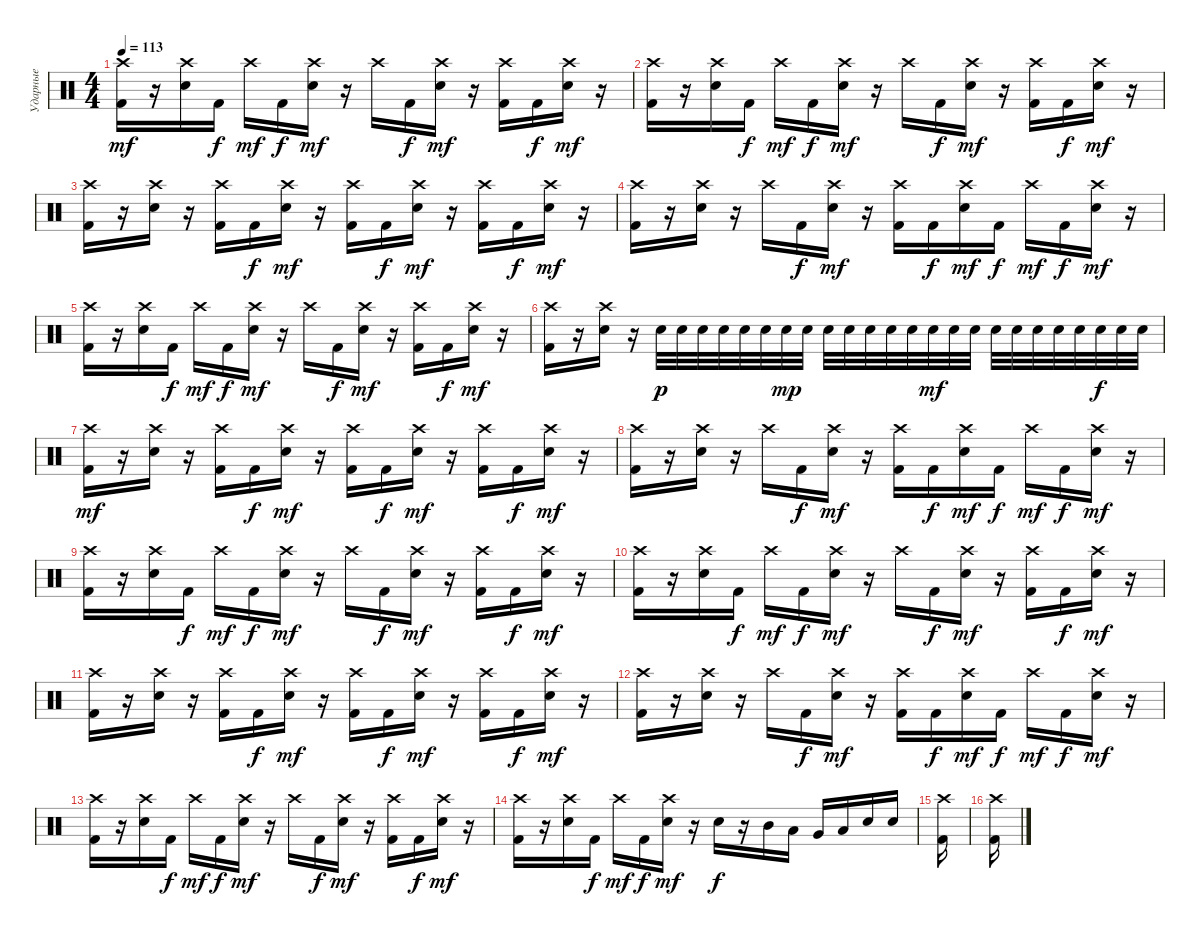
\track ("Ударные" "Ударные") {instrument percussion}
\staff {score}
\articulation defaults
\ts (4 4)
\tempo 113
\clef neutral
\ks c
("Crash high (hit)" "Kick (hit) 2").16{dy mf} r.16 ("Crash high (hit)" "Electric Snare (hit)").16 "Kick (hit) 2".16{dy f} "Crash high (hit)".16{dy mf} "Kick (hit) 2".16{dy f} ("Crash high (hit)" "Electric Snare (hit)").16{dy mf} r.16 "Crash high (hit)".16 "Kick (hit) 2".16{dy f} ("Crash high (hit)" "Electric Snare (hit)").16{dy mf} r.16 ("Crash high (hit)" "Kick (hit) 2").16 "Kick (hit) 2".16{dy f} ("Crash high (hit)" "Electric Snare (hit)").16{dy mf} r.16 |
("Crash high (hit)" "Kick (hit) 2").16 r.16 ("Crash high (hit)" "Electric Snare (hit)").16 "Kick (hit) 2".16{dy f} "Crash high (hit)".16{dy mf} "Kick (hit) 2".16{dy f} ("Crash high (hit)" "Electric Snare (hit)").16{dy mf} r.16 "Crash high (hit)".16 "Kick (hit) 2".16{dy f} ("Crash high (hit)" "Electric Snare (hit)").16{dy mf} r.16 ("Crash high (hit)" "Kick (hit) 2").16 "Kick (hit) 2".16{dy f} ("Crash high (hit)" "Electric Snare (hit)").16{dy mf} r.16 |
("Crash high (hit)" "Kick (hit) 2").16 r.16 ("Crash high (hit)" "Electric Snare (hit)").16 r.16 ("Crash high (hit)" "Kick (hit) 2").16 "Kick (hit) 2".16{dy f} ("Crash high (hit)" "Electric Snare (hit)").16{dy mf} r.16 ("Crash high (hit)" "Kick (hit) 2").16 "Kick (hit) 2".16{dy f} ("Crash high (hit)" "Electric Snare (hit)").16{dy mf} r.16 ("Crash high (hit)" "Kick (hit) 2").16 "Kick (hit) 2".16{dy f} ("Crash high (hit)" "Electric Snare (hit)").16{dy mf} r.16 |
("Crash high (hit)" "Kick (hit) 2").16 r.16 ("Crash high (hit)" "Electric Snare (hit)").16 r.16 "Crash high (hit)".16 "Kick (hit) 2".16{dy f} ("Crash high (hit)" "Electric Snare (hit)").16{dy mf} r.16 ("Crash high (hit)" "Kick (hit) 2").16 "Kick (hit) 2".16{dy f} ("Crash high (hit)" "Electric Snare (hit)").16{dy mf} "Kick (hit) 2".16{dy f} "Crash high (hit)".16{dy mf} "Kick (hit) 2".16{dy f} ("Crash high (hit)" "Electric Snare (hit)").16{dy mf} r.16 |
("Crash high (hit)" "Kick (hit) 2").16 r.16 ("Crash high (hit)" "Electric Snare (hit)").16 "Kick (hit) 2".16{dy f} "Crash high (hit)".16{dy mf} "Kick (hit) 2".16{dy f} ("Crash high (hit)" "Electric Snare (hit)").16{dy mf} r.16 "Crash high (hit)".16 "Kick (hit) 2".16{dy f} ("Crash high (hit)" "Electric Snare (hit)").16{dy mf} r.16 ("Crash high (hit)" "Kick (hit) 2").16 "Kick (hit) 2".16{dy f} ("Crash high (hit)" "Electric Snare (hit)").16{dy mf} r.16 |
("Crash high (hit)" "Kick (hit) 2").16 r.16 ("Crash high (hit)" "Electric Snare (hit)").16 r.16 "Electric Snare (hit)".32{dy p} "Electric Snare (hit)".32 "Electric Snare (hit)".32 "Electric Snare (hit)".32 "Electric Snare (hit)".32 "Electric Snare (hit)".32 "Electric Snare (hit)".32{dy mp} "Electric Snare (hit)".32 "Electric Snare (hit)".32 "Electric Snare (hit)".32 "Electric Snare (hit)".32 "Electric Snare (hit)".32 "Electric Snare (hit)".32 "Electric Snare (hit)".32{dy mf} "Electric Snare (hit)".32 "Electric Snare (hit)".32 "Electric Snare (hit)".32 "Electric Snare (hit)".32 "Electric Snare (hit)".32 "Electric Snare (hit)".32 "Electric Snare (hit)".32 "Electric Snare (hit)".32{dy f} "Electric Snare (hit)".32 "Electric Snare (hit)".32 |
("Crash high (hit)" "Kick (hit) 2").16{dy mf} r.16 ("Crash high (hit)" "Electric Snare (hit)").16 r.16 ("Crash high (hit)" "Kick (hit) 2").16 "Kick (hit) 2".16{dy f} ("Crash high (hit)" "Electric Snare (hit)").16{dy mf} r.16 ("Crash high (hit)" "Kick (hit) 2").16 "Kick (hit) 2".16{dy f} ("Crash high (hit)" "Electric Snare (hit)").16{dy mf} r.16 ("Crash high (hit)" "Kick (hit) 2").16 "Kick (hit) 2".16{dy f} ("Crash high (hit)" "Electric Snare (hit)").16{dy mf} r.16 |
("Crash high (hit)" "Kick (hit) 2").16 r.16 ("Crash high (hit)" "Electric Snare (hit)").16 r.16 "Crash high (hit)".16 "Kick (hit) 2".16{dy f} ("Crash high (hit)" "Electric Snare (hit)").16{dy mf} r.16 ("Crash high (hit)" "Kick (hit) 2").16 "Kick (hit) 2".16{dy f} ("Crash high (hit)" "Electric Snare (hit)").16{dy mf} "Kick (hit) 2".16{dy f} "Crash high (hit)".16{dy mf} "Kick (hit) 2".16{dy f} ("Crash high (hit)" "Electric Snare (hit)").16{dy mf} r.16 |
("Crash high (hit)" "Kick (hit) 2").16 r.16 ("Crash high (hit)" "Electric Snare (hit)").16 "Kick (hit) 2".16{dy f} "Crash high (hit)".16{dy mf} "Kick (hit) 2".16{dy f} ("Crash high (hit)" "Electric Snare (hit)").16{dy mf} r.16 "Crash high (hit)".16 "Kick (hit) 2".16{dy f} ("Crash high (hit)" "Electric Snare (hit)").16{dy mf} r.16 ("Crash high (hit)" "Kick (hit) 2").16 "Kick (hit) 2".16{dy f} ("Crash high (hit)" "Electric Snare (hit)").16{dy mf} r.16 |
("Crash high (hit)" "Kick (hit) 2").16 r.16 ("Crash high (hit)" "Electric Snare (hit)").16 "Kick (hit) 2".16{dy f} "Crash high (hit)".16{dy mf} "Kick (hit) 2".16{dy f} ("Crash high (hit)" "Electric Snare (hit)").16{dy mf} r.16 "Crash high (hit)".16 "Kick (hit) 2".16{dy f} ("Crash high (hit)" "Electric Snare (hit)").16{dy mf} r.16 ("Crash high (hit)" "Kick (hit) 2").16 "Kick (hit) 2".16{dy f} ("Crash high (hit)" "Electric Snare (hit)").16{dy mf} r.16 |
("Crash high (hit)" "Kick (hit) 2").16 r.16 ("Crash high (hit)" "Electric Snare (hit)").16 r.16 ("Crash high (hit)" "Kick (hit) 2").16 "Kick (hit) 2".16{dy f} ("Crash high (hit)" "Electric Snare (hit)").16{dy mf} r.16 ("Crash high (hit)" "Kick (hit) 2").16 "Kick (hit) 2".16{dy f} ("Crash high (hit)" "Electric Snare (hit)").16{dy mf} r.16 ("Crash high (hit)" "Kick (hit) 2").16 "Kick (hit) 2".16{dy f} ("Crash high (hit)" "Electric Snare (hit)").16{dy mf} r.16 |
("Crash high (hit)" "Kick (hit) 2").16 r.16 ("Crash high (hit)" "Electric Snare (hit)").16 r.16 "Crash high (hit)".16 "Kick (hit) 2".16{dy f} ("Crash high (hit)" "Electric Snare (hit)").16{dy mf} r.16 ("Crash high (hit)" "Kick (hit) 2").16 "Kick (hit) 2".16{dy f} ("Crash high (hit)" "Electric Snare (hit)").16{dy mf} "Kick (hit) 2".16{dy f} "Crash high (hit)".16{dy mf} "Kick (hit) 2".16{dy f} ("Crash high (hit)" "Electric Snare (hit)").16{dy mf} r.16 |
("Crash high (hit)" "Kick (hit) 2").16 r.16 ("Crash high (hit)" "Electric Snare (hit)").16 "Kick (hit) 2".16{dy f} "Crash high (hit)".16{dy mf} "Kick (hit) 2".16{dy f} ("Crash high (hit)" "Electric Snare (hit)").16{dy mf} r.16 "Crash high (hit)".16 "Kick (hit) 2".16{dy f} ("Crash high (hit)" "Electric Snare (hit)").16{dy mf} r.16 ("Crash high (hit)" "Kick (hit) 2").16 "Kick (hit) 2".16{dy f} ("Crash high (hit)" "Electric Snare (hit)").16{dy mf} r.16 |
("Crash high (hit)" "Kick (hit) 2").16 r.16 ("Crash high (hit)" "Electric Snare (hit)").16 "Kick (hit) 2".16{dy f} "Crash high (hit)".16{dy mf} "Kick (hit) 2".16{dy f} ("Crash high (hit)" "Electric Snare (hit)").16{dy mf} r.16 "Electric Snare (hit)".16{dy f} r.16 "Mid Tom (hit)".16 "Low Tom (hit)".16 "Very Low Tom (hit)".16 "Low Floor Tom (hit)".16 "Electric Snare (hit)".16 "Electric Snare (hit)".16 |
("Crash high (hit)" "Kick (hit) 2").16 |
("Crash high (hit)" "Kick (hit) 2").16
